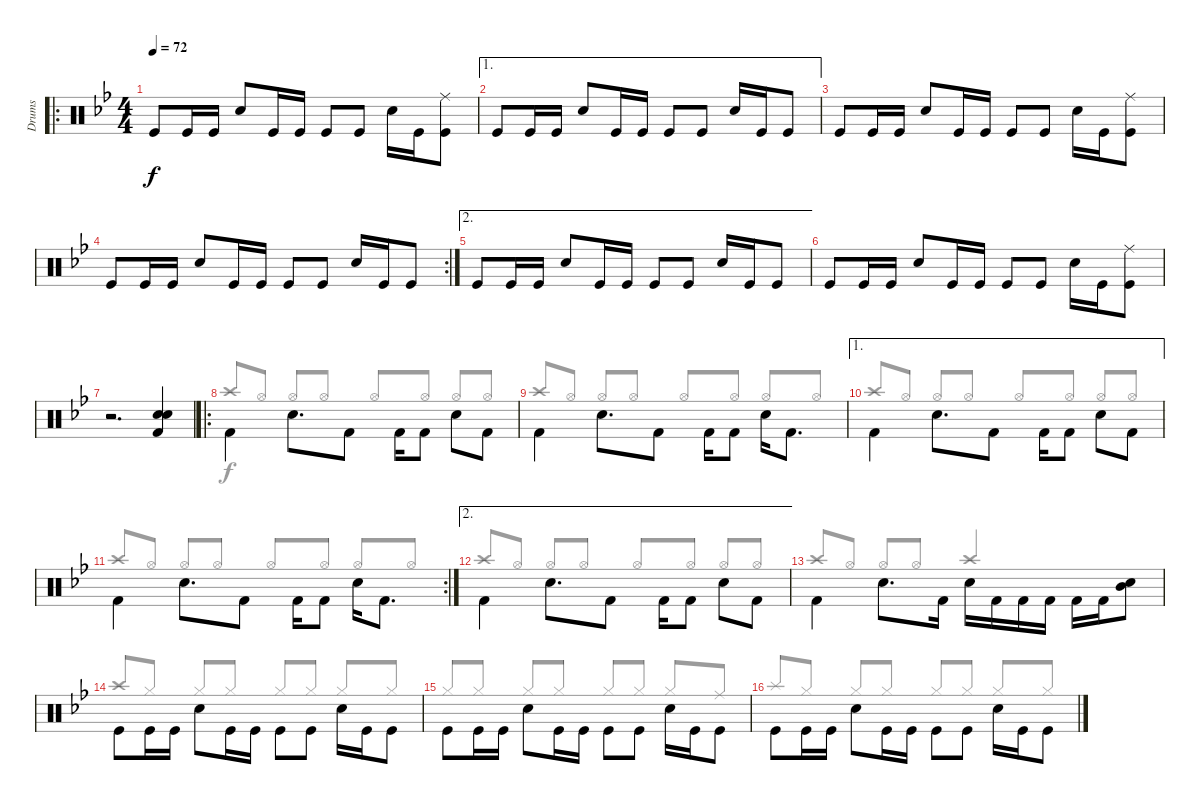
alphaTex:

\track ("Drums" "Drums") {instrument percussion}
\staff {score}
\articulation defaults
\voice
\ro
\ts (4 4)
\tempo 72
\clef neutral
\ks gminor "Kick (hit)".8{dy f} "Kick (hit)".16 "Kick (hit)".16 "Snare (hit) 2".8 "Kick (hit)".16 "Kick (hit)".16 "Kick (hit)".8 "Kick (hit)".8 "Snare (hit) 2".16 "Kick (hit)".16
("Ride (middle)" "Kick (hit)").8 |
\ae 1 "Kick (hit)".8 "Kick (hit)".16 "Kick (hit)".16 "Snare (hit) 2".8 "Kick (hit)".16 "Kick (hit)".16 "Kick (hit)".8 "Kick (hit)".8 "Snare (hit) 2".16 "Kick (hit)".16 "Kick (hit)".8
|
"Kick (hit)".8 "Kick (hit)".16 "Kick (hit)".16 "Snare (hit) 2".8 "Kick (hit)".16 "Kick (hit)".16 "Kick (hit)".8 "Kick (hit)".8 "Snare (hit) 2".16 "Kick (hit)".16 ("Ride (middle)" "Kick (hit)").8 |
\rc 2 "Kick (hit)".8 "Kick (hit)".16 "Kick (hit)".16 "Snare (hit) 2".8 "Kick (hit)".16 "Kick (hit)".16 "Kick (hit)".8 "Kick (hit)".8 "Snare (hit) 2".16 "Kick (hit)".16 "Kick (hit)".8
|
\ae 2 "Kick (hit)".8 "Kick (hit)".16 "Kick (hit)".16 "Snare (hit) 2".8 "Kick (hit)".16 "Kick (hit)".16 "Kick (hit)".8 "Kick (hit)".8 "Snare (hit) 2".16 "Kick (hit)".16 "Kick (hit)".8
|
"Kick (hit)".8 "Kick (hit)".16 "Kick (hit)".16 "Snare (hit) 2".8 "Kick (hit)".16 "Kick (hit)".16 "Kick (hit)".8 "Kick (hit)".8 "Snare (hit) 2".16 "Kick (hit)".16 ("Ride (middle)" "Kick (hit)").8 |
r.2{d} ("Snare (hit) 2" "Electric Snare (hit)" "Kick (hit) 2").4 |
\ro "Kick (hit) 2".4{beam Down} "Electric Snare (hit)".8{d beam Down} "Kick (hit) 2".8{beam Down} "Kick (hit) 2".16{beam Down} "Kick (hit) 2".8{beam Down} "Electric Snare (hit)".8{beam Down} "Kick (hit) 2".8{beam Down}
|
"Kick (hit) 2".4{beam Down} "Electric Snare (hit)".8{d beam Down} "Kick (hit) 2".8{beam Down} "Kick (hit) 2".16{beam Down} "Kick (hit) 2".8{beam Down} "Electric Snare (hit)".16{beam Down} "Kick (hit) 2".8{d beam Down} |
\ae 1 "Kick (hit) 2".4{beam Down} "Electric Snare (hit)".8{d beam Down} "Kick (hit) 2".8{beam Down} "Kick (hit) 2".16{beam Down} "Kick (hit) 2".8{beam Down} "Electric Snare (hit)".8{beam Down} "Kick (hit) 2".8{beam Down}
|
\rc 2 "Kick (hit) 2".4{beam Down} "Electric Snare (hit)".8{d beam Down} "Kick (hit) 2".8{beam Down} "Kick (hit) 2".16{beam Down} "Kick (hit) 2".8{beam Down} "Electric Snare (hit)".16{beam Down} "Kick (hit) 2".8{d beam Down}
|
\ae 2 "Kick (hit) 2".4{beam Down} "Electric Snare (hit)".8{d beam Down} "Kick (hit) 2".8{beam Down} "Kick (hit) 2".16{beam Down} "Kick (hit) 2".8{beam Down} "Electric Snare (hit)".8{beam Down} "Kick (hit) 2".8{beam Down}
|
"Kick (hit) 2".4{beam Down} "Electric Snare (hit)".8{d beam Down} "Kick (hit) 2".16{beam Down} "Electric Snare (hit)".16{beam Down} "Kick (hit) 2".16{beam Down} "Kick (hit) 2".16{beam Down} "Kick (hit) 2".16{beam Down} "Kick (hit) 2".16{beam Down} "Kick (hit) 2".16{beam Down} ("Electric Snare (hit)" "Mid Tom (hit)").8{beam Down} |
"Kick (hit)".8{beam Down} "Kick (hit)".16{beam Down} "Kick (hit)".16{beam Down} "Snare (hit) 2".8{beam Down} "Kick (hit)".16{beam Down} "Kick (hit)".16{beam Down} "Kick (hit)".8{beam Down} "Kick (hit)".8{beam Down} "Snare (hit) 2".16{beam Down} "Kick (hit)".16{beam Down} "Kick (hit)".8{beam Down} |
"Kick (hit)".8{beam Down} "Kick (hit)".16{beam Down} "Kick (hit)".16{beam Down} "Snare (hit) 2".8{beam Down} "Kick (hit)".16{beam Down} "Kick (hit)".16{beam Down} "Kick (hit)".8{beam Down} "Kick (hit)".8{beam Down} "Snare (hit) 2".16{beam Down} "Kick (hit)".16{beam Down} "Kick (hit)".8{beam Down} |
"Kick (hit)".8{beam Down} "Kick (hit)".16{beam Down} "Kick (hit)".16{beam Down} "Snare (hit) 2".8{beam Down} "Kick (hit)".16{beam Down} "Kick (hit)".16{beam Down} "Kick (hit)".8{beam Down} "Kick (hit)".8{beam Down} "Snare (hit) 2".16{beam Down} "Kick (hit)".16{beam Down} "Kick (hit)".8{beam Down}
\voice
\clef neutral
\ottava regular
\simile none
\ks gminor
|
|
|
|
|
|
|
"Crash high (hit)".8{beam Up} "Hi-Hat (open)".8{beam Up} "Hi-Hat (open)".8{beam Up} "Hi-Hat (open)".8{beam Up} "Hi-Hat (open)".8{beam Up} "Hi-Hat (open)".8{beam Up} "Hi-Hat (open)".8{beam Up} "Hi-Hat (open)".8{beam Up} |
"Crash high (hit)".8{beam Up} "Hi-Hat (open)".8{beam Up} "Hi-Hat (open)".8{beam Up} "Hi-Hat (open)".8{beam Up} "Hi-Hat (open)".8{beam Up} "Hi-Hat (open)".8{beam Up} "Hi-Hat (open)".8{beam Up} "Hi-Hat (open)".8{beam Up} |
"Crash high (hit)".8{beam Up} "Hi-Hat (open)".8{beam Up} "Hi-Hat (open)".8{beam Up} "Hi-Hat (open)".8{beam Up} "Hi-Hat (open)".8{beam Up} "Hi-Hat (open)".8{beam Up} "Hi-Hat (open)".8{beam Up} "Hi-Hat (open)".8{beam Up} |
"Crash high (hit)".8{beam Up} "Hi-Hat (open)".8{beam Up} "Hi-Hat (open)".8{beam Up} "Hi-Hat (open)".8{beam Up} "Hi-Hat (open)".8{beam Up} "Hi-Hat (open)".8{beam Up} "Hi-Hat (open)".8{beam Up} "Hi-Hat (open)".8{beam Up} |
"Crash high (hit)".8{beam Up} "Hi-Hat (open)".8{beam Up} "Hi-Hat (open)".8{beam Up} "Hi-Hat (open)".8{beam Up} "Hi-Hat (open)".8{beam Up} "Hi-Hat (open)".8{beam Up} "Hi-Hat (open)".8{beam Up} "Hi-Hat (open)".8{beam Up} |
"Crash high (hit)".8{beam Up} "Hi-Hat (open)".8{beam Up} "Hi-Hat (open)".8{beam Up} "Hi-Hat (open)".8{beam Up} "Crash high (hit)".2{beam Up} |
"Crash high (hit)".8{beam Up} "Hi-Hat (closed)".8{beam Up} "Hi-Hat (closed)".8{beam Up} "Hi-Hat (closed)".8{beam Up} "Hi-Hat (closed)".8{beam Up} "Hi-Hat (closed)".8{beam Up} "Hi-Hat (closed)".8{beam Up} "Hi-Hat (closed)".8{beam Up} |
"Hi-Hat (closed)".8{beam Up} "Hi-Hat (closed)".8{beam Up} "Hi-Hat (closed)".8{beam Up} "Hi-Hat (closed)".8{beam Up} "Hi-Hat (closed)".8{beam Up} "Hi-Hat (closed)".8{beam Up} "Hi-Hat (closed)".8{beam Up} "Ride (middle)".8{beam Up} |
"Splash (hit)".8{beam Up} "Hi-Hat (closed)".8{beam Up} "Hi-Hat (closed)".8{beam Up} "Hi-Hat (closed)".8{beam Up} "Hi-Hat (closed)".8{beam Up} "Hi-Hat (closed)".8{beam Up} "Hi-Hat (closed)".8{beam Up} "Hi-Hat (closed)".8{beam Up}
